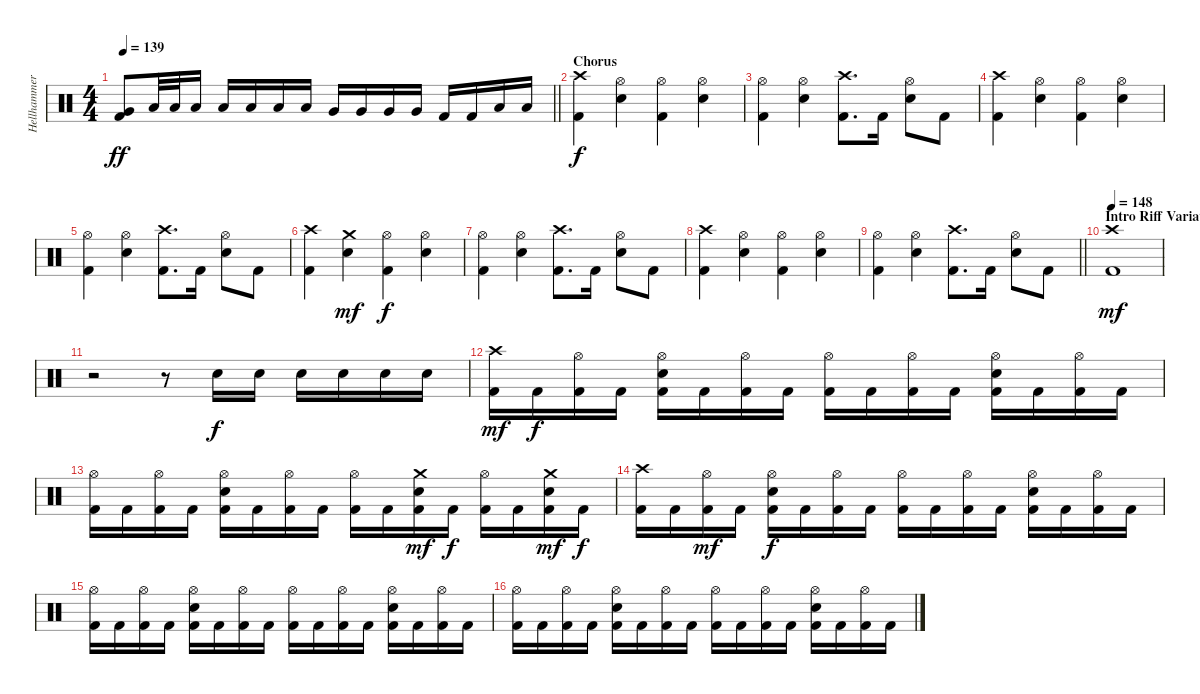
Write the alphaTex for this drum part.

\track ("Hellhammer" "Hellhammer") {instrument percussion}
\staff {score}
\articulation defaults
\ts (4 4)
\tempo 139
\clef neutral
\barLineRight lightlight
\ks c
("Very Low Tom (hit)" "Kick (hit) 2").8{dy ff} "Low Tom (hit)".32 "Low Tom (hit)".32 "Low Tom (hit)".16 "Low Tom (hit)".16 "Low Tom (hit)".16 "Low Tom (hit)".16 "Low Tom (hit)".16 "Very Low Tom (hit)".16 "Very Low Tom (hit)".16 "Very Low Tom (hit)".16 "Very Low Tom (hit)".16 "Kick (hit) 2".16 "Kick (hit) 2".16 "Low Floor Tom (hit)".16 "Low Floor Tom (hit)".16 |
\section ("" "Chorus")
("Crash high (hit)" "Kick (hit) 2").4{dy f} ("Hi-Hat (open)" "Snare (hit) 2").4 ("Hi-Hat (open)" "Kick (hit) 2").4 ("Hi-Hat (open)" "Snare (hit) 2").4 |
("Hi-Hat (open)" "Kick (hit) 2").4 ("Hi-Hat (open)" "Snare (hit) 2").4 ("Crash high (hit)" "Kick (hit) 2").8{d} "Kick (hit) 2".16 ("Hi-Hat (open)" "Snare (hit) 2").8 "Kick (hit) 2".8 |
("Crash high (hit)" "Kick (hit) 2").4 ("Hi-Hat (open)" "Snare (hit) 2").4 ("Hi-Hat (open)" "Kick (hit) 2").4 ("Hi-Hat (open)" "Snare (hit) 2").4 |
("Hi-Hat (open)" "Kick (hit) 2").4 ("Hi-Hat (open)" "Snare (hit) 2").4 ("Crash high (hit)" "Kick (hit) 2").8{d} "Kick (hit) 2".16 ("Hi-Hat (open)" "Snare (hit) 2").8 "Kick (hit) 2".8 |
("Crash high (hit)" "Kick (hit) 2").4 ("Crash medium (hit)" "Snare (hit) 2").4{dy mf} ("Hi-Hat (open)" "Kick (hit) 2").4{dy f} ("Hi-Hat (open)" "Snare (hit) 2").4 |
("Hi-Hat (open)" "Kick (hit) 2").4 ("Hi-Hat (open)" "Snare (hit) 2").4 ("Crash high (hit)" "Kick (hit) 2").8{d} "Kick (hit) 2".16 ("Hi-Hat (open)" "Snare (hit) 2").8 "Kick (hit) 2".8 |
("Crash high (hit)" "Kick (hit) 2").4 ("Hi-Hat (open)" "Snare (hit) 2").4 ("Hi-Hat (open)" "Kick (hit) 2").4 ("Hi-Hat (open)" "Snare (hit) 2").4 |
\barLineRight lightlight
("Hi-Hat (open)" "Kick (hit) 2").4 ("Hi-Hat (open)" "Snare (hit) 2").4 ("Crash high (hit)" "Kick (hit) 2").8{d} "Kick (hit) 2".16 ("Hi-Hat (open)" "Snare (hit) 2").8 "Kick (hit) 2".8 |
\section ("" "Intro Riff Variation")
\tempo 148
("Crash high (hit)" "Kick (hit) 2").1{dy mf} |
r.2 r.8 "Snare (hit) 2".16{dy f} "Snare (hit) 2".16 "Snare (hit) 2".16 "Snare (hit) 2".16 "Snare (hit) 2".16 "Snare (hit) 2".16 |
("Crash high (hit)" "Kick (hit) 2").16{dy mf} "Kick (hit) 2".16{dy f} ("Hi-Hat (open)" "Kick (hit) 2").16 "Kick (hit) 2".16 ("Hi-Hat (open)" "Snare (hit) 2" "Kick (hit) 2").16 "Kick (hit) 2".16 ("Hi-Hat (open)" "Kick (hit) 2").16 "Kick (hit) 2".16 ("Hi-Hat (open)" "Kick (hit) 2").16 "Kick (hit) 2".16 ("Hi-Hat (open)" "Kick (hit) 2").16 "Kick (hit) 2".16 ("Hi-Hat (open)" "Snare (hit) 2" "Kick (hit) 2").16 "Kick (hit) 2".16 ("Hi-Hat (open)" "Kick (hit) 2").16 "Kick (hit) 2".16 |
("Hi-Hat (open)" "Kick (hit) 2").16 "Kick (hit) 2".16 ("Hi-Hat (open)" "Kick (hit) 2").16 "Kick (hit) 2".16 ("Hi-Hat (open)" "Snare (hit) 2" "Kick (hit) 2").16 "Kick (hit) 2".16 ("Hi-Hat (open)" "Kick (hit) 2").16 "Kick (hit) 2".16 ("Hi-Hat (open)" "Kick (hit) 2").16 "Kick (hit) 2".16 ("Crash medium (hit)" "Snare (hit) 2" "Kick (hit) 2").16{dy mf} "Kick (hit) 2".16{dy f} ("Hi-Hat (open)" "Kick (hit) 2").16 "Kick (hit) 2".16 ("Crash medium (hit)" "Snare (hit) 2" "Kick (hit) 2").16{dy mf} "Kick (hit) 2".16{dy f} |
("Crash high (hit)" "Kick (hit) 2").16 "Kick (hit) 2".16 ("Hi-Hat (open)" "Kick (hit) 2").16{dy mf} "Kick (hit) 2".16 ("Hi-Hat (open)" "Snare (hit) 2" "Kick (hit) 2").16{dy f} "Kick (hit) 2".16 ("Hi-Hat (open)" "Kick (hit) 2").16 "Kick (hit) 2".16 ("Hi-Hat (open)" "Kick (hit) 2").16 "Kick (hit) 2".16 ("Hi-Hat (open)" "Kick (hit) 2").16 "Kick (hit) 2".16 ("Hi-Hat (open)" "Snare (hit) 2" "Kick (hit) 2").16 "Kick (hit) 2".16 ("Hi-Hat (open)" "Kick (hit) 2").16 "Kick (hit) 2".16 |
("Hi-Hat (open)" "Kick (hit) 2").16 "Kick (hit) 2".16 ("Hi-Hat (open)" "Kick (hit) 2").16 "Kick (hit) 2".16 ("Hi-Hat (open)" "Snare (hit) 2" "Kick (hit) 2").16 "Kick (hit) 2".16 ("Hi-Hat (open)" "Kick (hit) 2").16 "Kick (hit) 2".16 ("Hi-Hat (open)" "Kick (hit) 2").16 "Kick (hit) 2".16 ("Hi-Hat (open)" "Kick (hit) 2").16 "Kick (hit) 2".16 ("Hi-Hat (open)" "Snare (hit) 2" "Kick (hit) 2").16 "Kick (hit) 2".16 ("Hi-Hat (open)" "Kick (hit) 2").16 "Kick (hit) 2".16 |
("Hi-Hat (open)" "Kick (hit) 2").16 "Kick (hit) 2".16 ("Hi-Hat (open)" "Kick (hit) 2").16 "Kick (hit) 2".16 ("Hi-Hat (open)" "Snare (hit) 2" "Kick (hit) 2").16 "Kick (hit) 2".16 ("Hi-Hat (open)" "Kick (hit) 2").16 "Kick (hit) 2".16 ("Hi-Hat (open)" "Kick (hit) 2").16 "Kick (hit) 2".16 ("Hi-Hat (open)" "Kick (hit) 2").16 "Kick (hit) 2".16 ("Hi-Hat (open)" "Snare (hit) 2" "Kick (hit) 2").16 "Kick (hit) 2".16 ("Hi-Hat (open)" "Kick (hit) 2").16 "Kick (hit) 2".16
